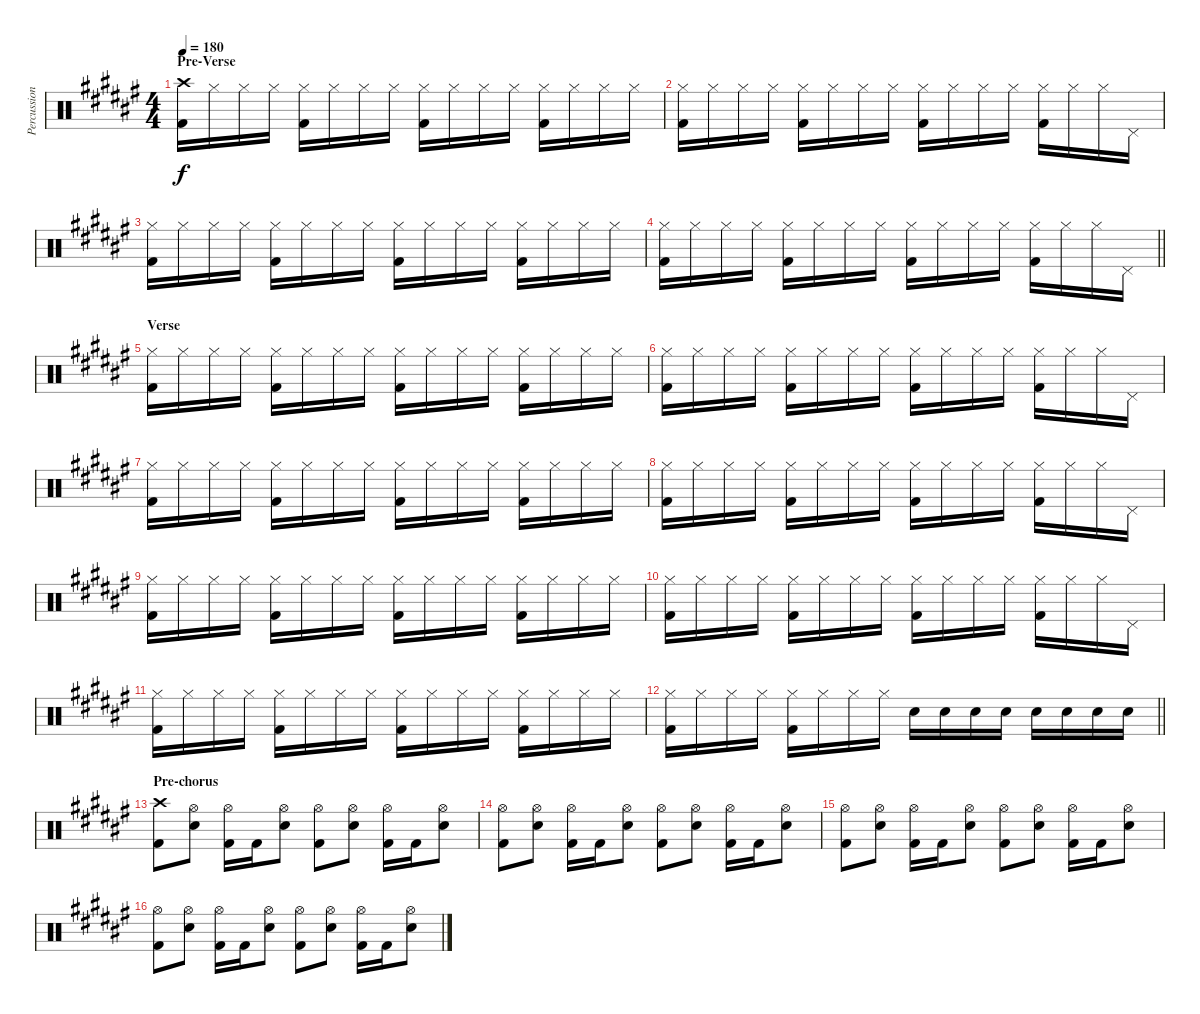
\track ("Percussion" "Percussion") {instrument percussion}
\staff {score}
\articulation defaults
\ts (4 4)
\section ("" "Pre-Verse")
\tempo 180
\clef neutral
\ks f#
("Crash high (hit)" "Kick (hit) 2").16{dy f} "Hi-Hat (closed)".16 "Hi-Hat (closed)".16 "Hi-Hat (closed)".16 ("Hi-Hat (closed)" "Kick (hit) 2").16 "Hi-Hat (closed)".16 "Hi-Hat (closed)".16 "Hi-Hat (closed)".16 ("Hi-Hat (closed)" "Kick (hit) 2").16 "Hi-Hat (closed)".16 "Hi-Hat (closed)".16 "Hi-Hat (closed)".16 ("Hi-Hat (closed)" "Kick (hit) 2").16 "Hi-Hat (closed)".16 "Hi-Hat (closed)".16 "Hi-Hat (closed)".16 |
("Hi-Hat (closed)" "Kick (hit) 2").16 "Hi-Hat (closed)".16 "Hi-Hat (closed)".16 "Hi-Hat (closed)".16 ("Hi-Hat (closed)" "Kick (hit) 2").16 "Hi-Hat (closed)".16 "Hi-Hat (closed)".16 "Hi-Hat (closed)".16 ("Hi-Hat (closed)" "Kick (hit) 2").16 "Hi-Hat (closed)".16 "Hi-Hat (closed)".16 "Hi-Hat (closed)".16 ("Hi-Hat (closed)" "Kick (hit) 2").16 "Hi-Hat (closed)".16 "Hi-Hat (closed)".16 "Pedal Hi-Hat (hit)".16 |
("Hi-Hat (closed)" "Kick (hit) 2").16 "Hi-Hat (closed)".16 "Hi-Hat (closed)".16 "Hi-Hat (closed)".16 ("Hi-Hat (closed)" "Kick (hit) 2").16 "Hi-Hat (closed)".16 "Hi-Hat (closed)".16 "Hi-Hat (closed)".16 ("Hi-Hat (closed)" "Kick (hit) 2").16 "Hi-Hat (closed)".16 "Hi-Hat (closed)".16 "Hi-Hat (closed)".16 ("Hi-Hat (closed)" "Kick (hit) 2").16 "Hi-Hat (closed)".16 "Hi-Hat (closed)".16 "Hi-Hat (closed)".16 |
\barLineRight lightlight
("Hi-Hat (closed)" "Kick (hit) 2").16 "Hi-Hat (closed)".16 "Hi-Hat (closed)".16 "Hi-Hat (closed)".16 ("Hi-Hat (closed)" "Kick (hit) 2").16 "Hi-Hat (closed)".16 "Hi-Hat (closed)".16 "Hi-Hat (closed)".16 ("Hi-Hat (closed)" "Kick (hit) 2").16 "Hi-Hat (closed)".16 "Hi-Hat (closed)".16 "Hi-Hat (closed)".16 ("Hi-Hat (closed)" "Kick (hit) 2").16 "Hi-Hat (closed)".16 "Hi-Hat (closed)".16 "Pedal Hi-Hat (hit)".16 |
\section ("" "Verse")
("Hi-Hat (closed)" "Kick (hit) 2").16 "Hi-Hat (closed)".16 "Hi-Hat (closed)".16 "Hi-Hat (closed)".16 ("Hi-Hat (closed)" "Kick (hit) 2").16 "Hi-Hat (closed)".16 "Hi-Hat (closed)".16 "Hi-Hat (closed)".16 ("Hi-Hat (closed)" "Kick (hit) 2").16 "Hi-Hat (closed)".16 "Hi-Hat (closed)".16 "Hi-Hat (closed)".16 ("Hi-Hat (closed)" "Kick (hit) 2").16 "Hi-Hat (closed)".16 "Hi-Hat (closed)".16 "Hi-Hat (closed)".16 |
("Hi-Hat (closed)" "Kick (hit) 2").16 "Hi-Hat (closed)".16 "Hi-Hat (closed)".16 "Hi-Hat (closed)".16 ("Hi-Hat (closed)" "Kick (hit) 2").16 "Hi-Hat (closed)".16 "Hi-Hat (closed)".16 "Hi-Hat (closed)".16 ("Hi-Hat (closed)" "Kick (hit) 2").16 "Hi-Hat (closed)".16 "Hi-Hat (closed)".16 "Hi-Hat (closed)".16 ("Hi-Hat (closed)" "Kick (hit) 2").16 "Hi-Hat (closed)".16 "Hi-Hat (closed)".16 "Pedal Hi-Hat (hit)".16 |
("Hi-Hat (closed)" "Kick (hit) 2").16 "Hi-Hat (closed)".16 "Hi-Hat (closed)".16 "Hi-Hat (closed)".16 ("Hi-Hat (closed)" "Kick (hit) 2").16 "Hi-Hat (closed)".16 "Hi-Hat (closed)".16 "Hi-Hat (closed)".16 ("Hi-Hat (closed)" "Kick (hit) 2").16 "Hi-Hat (closed)".16 "Hi-Hat (closed)".16 "Hi-Hat (closed)".16 ("Hi-Hat (closed)" "Kick (hit) 2").16 "Hi-Hat (closed)".16 "Hi-Hat (closed)".16 "Hi-Hat (closed)".16 |
("Hi-Hat (closed)" "Kick (hit) 2").16 "Hi-Hat (closed)".16 "Hi-Hat (closed)".16 "Hi-Hat (closed)".16 ("Hi-Hat (closed)" "Kick (hit) 2").16 "Hi-Hat (closed)".16 "Hi-Hat (closed)".16 "Hi-Hat (closed)".16 ("Hi-Hat (closed)" "Kick (hit) 2").16 "Hi-Hat (closed)".16 "Hi-Hat (closed)".16 "Hi-Hat (closed)".16 ("Hi-Hat (closed)" "Kick (hit) 2").16 "Hi-Hat (closed)".16 "Hi-Hat (closed)".16 "Pedal Hi-Hat (hit)".16 |
("Hi-Hat (closed)" "Kick (hit) 2").16 "Hi-Hat (closed)".16 "Hi-Hat (closed)".16 "Hi-Hat (closed)".16 ("Hi-Hat (closed)" "Kick (hit) 2").16 "Hi-Hat (closed)".16 "Hi-Hat (closed)".16 "Hi-Hat (closed)".16 ("Hi-Hat (closed)" "Kick (hit) 2").16 "Hi-Hat (closed)".16 "Hi-Hat (closed)".16 "Hi-Hat (closed)".16 ("Hi-Hat (closed)" "Kick (hit) 2").16 "Hi-Hat (closed)".16 "Hi-Hat (closed)".16 "Hi-Hat (closed)".16 |
("Hi-Hat (closed)" "Kick (hit) 2").16 "Hi-Hat (closed)".16 "Hi-Hat (closed)".16 "Hi-Hat (closed)".16 ("Hi-Hat (closed)" "Kick (hit) 2").16 "Hi-Hat (closed)".16 "Hi-Hat (closed)".16 "Hi-Hat (closed)".16 ("Hi-Hat (closed)" "Kick (hit) 2").16 "Hi-Hat (closed)".16 "Hi-Hat (closed)".16 "Hi-Hat (closed)".16 ("Hi-Hat (closed)" "Kick (hit) 2").16 "Hi-Hat (closed)".16 "Hi-Hat (closed)".16 "Pedal Hi-Hat (hit)".16 |
("Hi-Hat (closed)" "Kick (hit) 2").16 "Hi-Hat (closed)".16 "Hi-Hat (closed)".16 "Hi-Hat (closed)".16 ("Hi-Hat (closed)" "Kick (hit) 2").16 "Hi-Hat (closed)".16 "Hi-Hat (closed)".16 "Hi-Hat (closed)".16 ("Hi-Hat (closed)" "Kick (hit) 2").16 "Hi-Hat (closed)".16 "Hi-Hat (closed)".16 "Hi-Hat (closed)".16 ("Hi-Hat (closed)" "Kick (hit) 2").16 "Hi-Hat (closed)".16 "Hi-Hat (closed)".16 "Hi-Hat (closed)".16 |
\barLineRight lightlight
("Hi-Hat (closed)" "Kick (hit) 2").16 "Hi-Hat (closed)".16 "Hi-Hat (closed)".16 "Hi-Hat (closed)".16 ("Hi-Hat (closed)" "Kick (hit) 2").16 "Hi-Hat (closed)".16 "Hi-Hat (closed)".16 "Hi-Hat (closed)".16 "Snare (hit) 2".16 "Snare (hit) 2".16 "Snare (hit) 2".16 "Snare (hit) 2".16 "Snare (hit) 2".16 "Snare (hit) 2".16 "Snare (hit) 2".16 "Snare (hit) 2".16 |
\section ("" "Pre-chorus")
("Crash high (hit)" "Kick (hit) 2").8 ("Hi-Hat (open)" "Snare (hit) 2").8 ("Hi-Hat (open)" "Kick (hit) 2").16 "Kick (hit) 2".16 ("Hi-Hat (open)" "Snare (hit) 2").8 ("Hi-Hat (open)" "Kick (hit) 2").8 ("Hi-Hat (open)" "Snare (hit) 2").8 ("Hi-Hat (open)" "Kick (hit) 2").16 "Kick (hit) 2".16 ("Hi-Hat (open)" "Snare (hit) 2").8 |
("Hi-Hat (open)" "Kick (hit) 2").8 ("Hi-Hat (open)" "Snare (hit) 2").8 ("Hi-Hat (open)" "Kick (hit) 2").16 "Kick (hit) 2".16 ("Hi-Hat (open)" "Snare (hit) 2").8 ("Hi-Hat (open)" "Kick (hit) 2").8 ("Hi-Hat (open)" "Snare (hit) 2").8 ("Hi-Hat (open)" "Kick (hit) 2").16 "Kick (hit) 2".16 ("Hi-Hat (open)" "Snare (hit) 2").8 |
("Hi-Hat (open)" "Kick (hit) 2").8 ("Hi-Hat (open)" "Snare (hit) 2").8 ("Hi-Hat (open)" "Kick (hit) 2").16 "Kick (hit) 2".16 ("Hi-Hat (open)" "Snare (hit) 2").8 ("Hi-Hat (open)" "Kick (hit) 2").8 ("Hi-Hat (open)" "Snare (hit) 2").8 ("Hi-Hat (open)" "Kick (hit) 2").16 "Kick (hit) 2".16 ("Hi-Hat (open)" "Snare (hit) 2").8 |
("Hi-Hat (open)" "Kick (hit) 2").8 ("Hi-Hat (open)" "Snare (hit) 2").8 ("Hi-Hat (open)" "Kick (hit) 2").16 "Kick (hit) 2".16 ("Hi-Hat (open)" "Snare (hit) 2").8 ("Hi-Hat (open)" "Kick (hit) 2").8 ("Hi-Hat (open)" "Snare (hit) 2").8 ("Hi-Hat (open)" "Kick (hit) 2").16 "Kick (hit) 2".16 ("Hi-Hat (open)" "Snare (hit) 2").8
